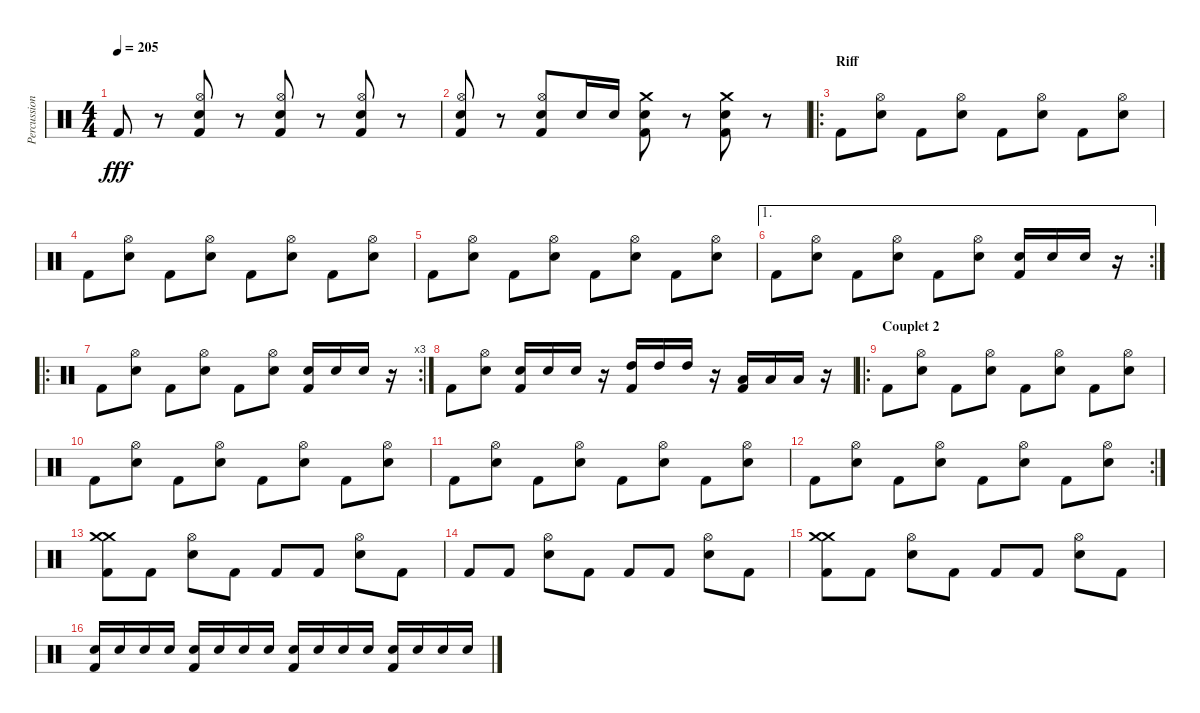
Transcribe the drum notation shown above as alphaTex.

\track ("Percussions" "Percussion") {instrument percussion}
\staff {score}
\articulation defaults
\ts (4 4)
\tempo 205
\clef neutral
\ks c "Kick (hit) 2".8{dy fff}
r.8 ("Hi-Hat (open)" "Snare (hit) 2" "Kick (hit) 2").8 r.8 ("Hi-Hat (open)" "Snare (hit) 2" "Kick (hit) 2").8 r.8 ("Hi-Hat (open)" "Snare (hit) 2" "Kick (hit) 2").8 r.8 |
("Hi-Hat (open)" "Snare (hit) 2" "Kick (hit) 2").8 r.8 ("Hi-Hat (open)" "Snare (hit) 2" "Kick (hit) 2").8 "Snare (hit) 2".16 "Snare (hit) 2".16 ("Crash medium (hit)" "Snare (hit) 2" "Kick (hit) 2").8 r.8 ("Crash medium (hit)" "Snare (hit) 2" "Kick (hit) 2").8 r.8 |
\ro
\section ("" "Riff")
"Kick (hit) 2".8 ("Hi-Hat (open)" "Snare (hit) 2").8 "Kick (hit) 2".8 ("Hi-Hat (open)" "Snare (hit) 2").8 "Kick (hit) 2".8 ("Hi-Hat (open)" "Snare (hit) 2").8 "Kick (hit) 2".8 ("Hi-Hat (open)" "Snare (hit) 2").8 |
"Kick (hit) 2".8 ("Hi-Hat (open)" "Snare (hit) 2").8 "Kick (hit) 2".8 ("Hi-Hat (open)" "Snare (hit) 2").8 "Kick (hit) 2".8 ("Hi-Hat (open)" "Snare (hit) 2").8 "Kick (hit) 2".8 ("Hi-Hat (open)" "Snare (hit) 2").8 |
"Kick (hit) 2".8 ("Hi-Hat (open)" "Snare (hit) 2").8 "Kick (hit) 2".8 ("Hi-Hat (open)" "Snare (hit) 2").8 "Kick (hit) 2".8 ("Hi-Hat (open)" "Snare (hit) 2").8 "Kick (hit) 2".8 ("Hi-Hat (open)" "Snare (hit) 2").8 |
\ae 1
\rc 2 "Kick (hit) 2".8
("Hi-Hat (open)" "Snare (hit) 2").8 "Kick (hit) 2".8 ("Hi-Hat (open)" "Snare (hit) 2").8 "Kick (hit) 2".8 ("Hi-Hat (open)" "Snare (hit) 2").8 ("Snare (hit) 2" "Kick (hit) 2").16 "Snare (hit) 2".16 "Snare (hit) 2".16 r.16 |
\ro
\rc 3 "Kick (hit) 2".8
("Hi-Hat (open)" "Snare (hit) 2").8 "Kick (hit) 2".8 ("Hi-Hat (open)" "Snare (hit) 2").8 "Kick (hit) 2".8 ("Hi-Hat (open)" "Snare (hit) 2").8 ("Snare (hit) 2" "Kick (hit) 2").16 "Snare (hit) 2".16 "Snare (hit) 2".16 r.16 |
"Kick (hit) 2".8 ("Hi-Hat (open)" "Snare (hit) 2").8 ("Snare (hit) 2" "Kick (hit) 2").16 "Snare (hit) 2".16 "Snare (hit) 2".16 r.16 ("High Tom (hit)" "Kick (hit) 2").16 "High Tom (hit)".16 "High Tom (hit)".16 r.16 ("Low Tom (hit)" "Kick (hit) 2").16 "Low Tom (hit)".16 "Low Tom (hit)".16 r.16 |
\ro
\section ("" "Couplet 2")
"Kick (hit) 2".8 ("Hi-Hat (open)" "Snare (hit) 2").8 "Kick (hit) 2".8 ("Hi-Hat (open)" "Snare (hit) 2").8 "Kick (hit) 2".8 ("Hi-Hat (open)" "Snare (hit) 2").8 "Kick (hit) 2".8 ("Hi-Hat (open)" "Snare (hit) 2").8 |
"Kick (hit) 2".8 ("Hi-Hat (open)" "Snare (hit) 2").8 "Kick (hit) 2".8 ("Hi-Hat (open)" "Snare (hit) 2").8 "Kick (hit) 2".8 ("Hi-Hat (open)" "Snare (hit) 2").8 "Kick (hit) 2".8 ("Hi-Hat (open)" "Snare (hit) 2").8 |
"Kick (hit) 2".8 ("Hi-Hat (open)" "Snare (hit) 2").8 "Kick (hit) 2".8 ("Hi-Hat (open)" "Snare (hit) 2").8 "Kick (hit) 2".8 ("Hi-Hat (open)" "Snare (hit) 2").8 "Kick (hit) 2".8 ("Hi-Hat (open)" "Snare (hit) 2").8 |
\rc 2 "Kick (hit) 2".8
("Hi-Hat (open)" "Snare (hit) 2").8 "Kick (hit) 2".8 ("Hi-Hat (open)" "Snare (hit) 2").8 "Kick (hit) 2".8 ("Hi-Hat (open)" "Snare (hit) 2").8 "Kick (hit) 2".8 ("Hi-Hat (open)" "Snare (hit) 2").8 |
("Crash medium (hit)" "Crash medium (hit)" "Kick (hit) 2").8 "Kick (hit) 2".8 ("Hi-Hat (open)" "Snare (hit) 2").8 "Kick (hit) 2".8 "Kick (hit) 2".8 "Kick (hit) 2".8 ("Hi-Hat (open)" "Snare (hit) 2").8 "Kick (hit) 2".8 |
"Kick (hit) 2".8 "Kick (hit) 2".8 ("Hi-Hat (open)" "Snare (hit) 2").8 "Kick (hit) 2".8 "Kick (hit) 2".8 "Kick (hit) 2".8 ("Hi-Hat (open)" "Snare (hit) 2").8 "Kick (hit) 2".8 |
("Crash medium (hit)" "Crash medium (hit)" "Kick (hit) 2").8 "Kick (hit) 2".8 ("Hi-Hat (open)" "Snare (hit) 2").8 "Kick (hit) 2".8 "Kick (hit) 2".8 "Kick (hit) 2".8 ("Hi-Hat (open)" "Snare (hit) 2").8 "Kick (hit) 2".8 |
("Snare (hit) 2" "Kick (hit) 2").16 "Snare (hit) 2".16 "Snare (hit) 2".16 "Snare (hit) 2".16 ("Snare (hit) 2" "Kick (hit) 2").16 "Snare (hit) 2".16 "Snare (hit) 2".16 "Snare (hit) 2".16 ("Snare (hit) 2" "Kick (hit) 2").16 "Snare (hit) 2".16 "Snare (hit) 2".16 "Snare (hit) 2".16 ("Snare (hit) 2" "Kick (hit) 2").16 "Snare (hit) 2".16 "Snare (hit) 2".16 "Snare (hit) 2".16
